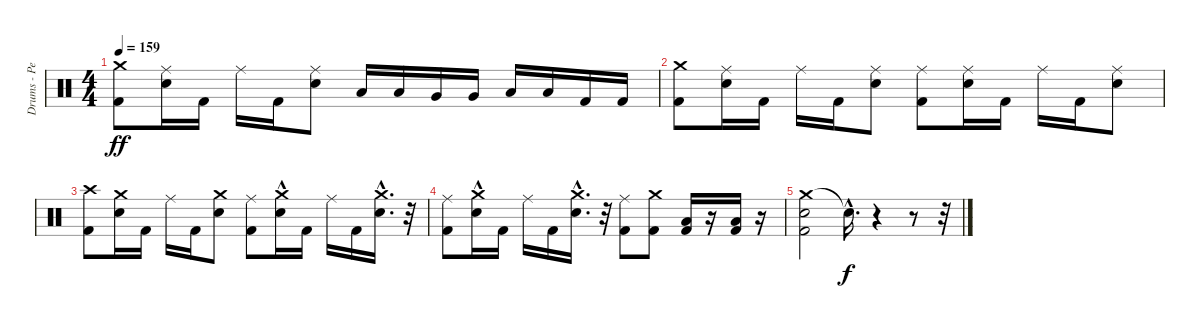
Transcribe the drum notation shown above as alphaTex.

\track ("Drums - Pete Finestone" "Drums - Pe") {instrument percussion}
\staff {score}
\articulation defaults
\ts (4 4)
\tempo 159
\clef neutral
\ks c
("Crash medium (hit)" "Kick (hit) 2").8{dy ff} ("Electric Snare (hit)" "Ride (middle)").16 "Kick (hit) 2".16 "Ride (middle)".16 "Kick (hit) 2".16 ("Electric Snare (hit)" "Ride (middle)").8 "Low Tom (hit)".16 "Low Tom (hit)".16 "Very Low Tom (hit)".16 "Very Low Tom (hit)".16 "Low Floor Tom (hit)".16 "Low Floor Tom (hit)".16 "Kick (hit) 2".16 "Kick (hit) 2".16 |
("Crash medium (hit)" "Kick (hit) 2").8 ("Electric Snare (hit)" "Ride (middle)").16 "Kick (hit) 2".16 "Ride (middle)".16 "Kick (hit) 2".16 ("Electric Snare (hit)" "Ride (middle)").8 ("Kick (hit) 2" "Ride (middle)").8 ("Electric Snare (hit)" "Ride (middle)").16 "Kick (hit) 2".16 "Ride (middle)".16 "Kick (hit) 2".16 ("Electric Snare (hit)" "Ride (middle)").8 |
("Crash high (hit)" "Kick (hit) 2").8 ("Crash medium (hit)" "Electric Snare (hit)").16 "Kick (hit) 2".16 "Ride (middle)".16 "Kick (hit) 2".16 ("Crash medium (hit)" "Electric Snare (hit)").8 ("Kick (hit) 2" "Ride (middle)").8 ("Crash medium (hit)"{hac} "Electric Snare (hit)").16 "Kick (hit) 2".16 "Ride (middle)".16 "Kick (hit) 2".16 ("Crash medium (hit)"{hac} "Electric Snare (hit)").16{d} r.32 |
("Kick (hit) 2" "Ride (middle)").8 ("Crash medium (hit)"{hac} "Electric Snare (hit)").16 "Kick (hit) 2".16 "Ride (middle)".16 "Kick (hit) 2".16 ("Crash medium (hit)"{hac} "Electric Snare (hit)").16{d} r.32 ("Kick (hit) 2" "Ride (middle)").8 ("Crash medium (hit)" "Kick (hit) 2").8 ("Kick (hit) 2" "Low Tom (hit)").16 r.16 ("Kick (hit) 2" "Low Tom (hit)").16 r.16 |
("Crash medium (hit)" "Kick (hit) 2" "Electric Snare (hit)").2 "Snare (hit)"{hac t}.16{d dy f} r.4 r.8 r.32
